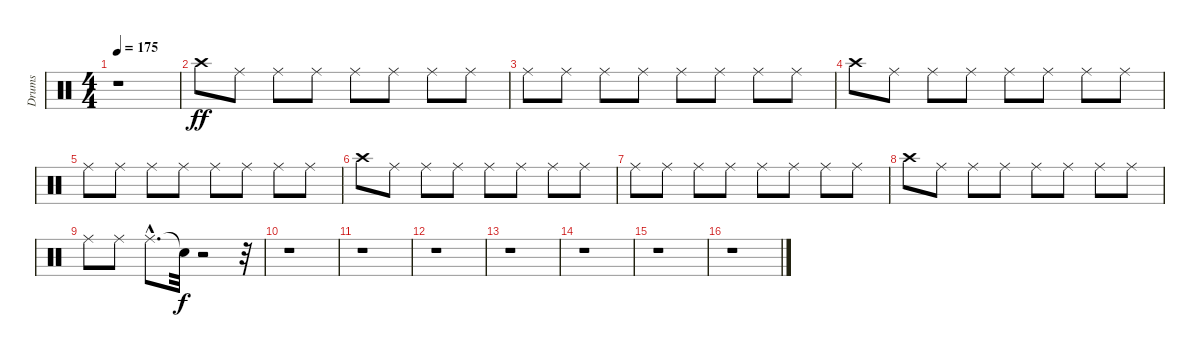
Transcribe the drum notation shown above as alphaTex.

\track ("Drums" "Drums") {instrument percussion}
\staff {score}
\articulation defaults
\ts (4 4)
\tempo 175
\clef neutral
\ks c
r.1{dy ff} |
"Crash high (hit)".8 "Ride (middle)".8 "Ride (middle)".8 "Ride (middle)".8 "Ride (middle)".8 "Ride (middle)".8 "Ride (middle)".8 "Ride (middle)".8 |
"Ride (middle)".8 "Ride (middle)".8 "Ride (middle)".8 "Ride (middle)".8 "Ride (middle)".8 "Ride (middle)".8 "Ride (middle)".8 "Ride (middle)".8 |
"Crash high (hit)".8 "Ride (middle)".8 "Ride (middle)".8 "Ride (middle)".8 "Ride (middle)".8 "Ride (middle)".8 "Ride (middle)".8 "Ride (middle)".8 |
"Ride (middle)".8 "Ride (middle)".8 "Ride (middle)".8 "Ride (middle)".8 "Ride (middle)".8 "Ride (middle)".8 "Ride (middle)".8 "Ride (middle)".8 |
"Crash high (hit)".8 "Ride (middle)".8 "Ride (middle)".8 "Ride (middle)".8 "Ride (middle)".8 "Ride (middle)".8 "Ride (middle)".8 "Ride (middle)".8 |
"Ride (middle)".8 "Ride (middle)".8 "Ride (middle)".8 "Ride (middle)".8 "Ride (middle)".8 "Ride (middle)".8 "Ride (middle)".8 "Ride (middle)".8 |
"Crash high (hit)".8 "Ride (middle)".8 "Ride (middle)".8 "Ride (middle)".8 "Ride (middle)".8 "Ride (middle)".8 "Ride (middle)".8 "Ride (middle)".8 |
"Ride (middle)".8 "Ride (middle)".8 "Ride (middle)"{hac}.8{d} "Snare (hit)"{t}.32{dy f} r.2 r.32 |
r.1 |
r.1 |
r.1 |
r.1 |
r.1 |
r.1 |
r.1
